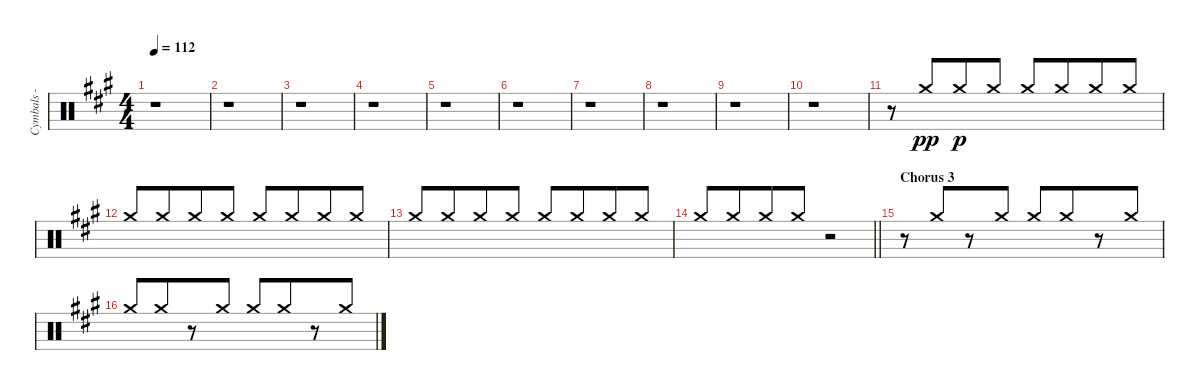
\track ("Cymbals - ride" "Cymbals - ") {instrument percussion}
\staff {score}
\articulation defaults
\ts (4 4)
\tempo 112
\clef neutral
\ks f#minor
r.1{dy pp} |
r.1 |
r.1 |
r.1 |
r.1 |
r.1 |
r.1 |
r.1 |
r.1 |
r.1 |
r.8{volume 10} "Crash medium (hit)".8{beam Up beam merge} "Crash medium (hit)".8{dy p beam Up} "Crash medium (hit)".8{beam Up} "Crash medium (hit)".8{beam Up} "Crash medium (hit)".8{beam Up beam merge} "Crash medium (hit)".8{beam Up} "Crash medium (hit)".8{beam Up} |
"Crash medium (hit)".8{beam Up} "Crash medium (hit)".8{beam Up beam merge} "Crash medium (hit)".8{beam Up} "Crash medium (hit)".8{beam Up} "Crash medium (hit)".8{beam Up} "Crash medium (hit)".8{beam Up beam merge} "Crash medium (hit)".8{beam Up} "Crash medium (hit)".8{beam Up} |
"Crash medium (hit)".8{beam Up} "Crash medium (hit)".8{beam Up beam merge} "Crash medium (hit)".8{beam Up} "Crash medium (hit)".8{beam Up} "Crash medium (hit)".8{beam Up} "Crash medium (hit)".8{beam Up beam merge} "Crash medium (hit)".8{beam Up} "Crash medium (hit)".8{beam Up} |
\barLineRight lightlight "Crash medium (hit)".8{beam Up} "Crash medium (hit)".8{beam Up beam merge} "Crash medium (hit)".8{beam Up} "Crash medium (hit)".8{beam Up}
r.2 |
\section ("" "Chorus 3")
r.8 "Crash medium (hit)".8{beam Up beam merge} r.8{beam Up} "Crash medium (hit)".8{beam Up} "Crash medium (hit)".8{beam Up} "Crash medium (hit)".8{beam Up beam merge} r.8{beam Up} "Crash medium (hit)".8{beam Up} |
"Crash medium (hit)".8{beam Up} "Crash medium (hit)".8{beam Up beam merge} r.8{beam Up} "Crash medium (hit)".8{beam Up} "Crash medium (hit)".8{beam Up} "Crash medium (hit)".8{beam Up beam merge} r.8{beam Up} "Crash medium (hit)".8{beam Up}
